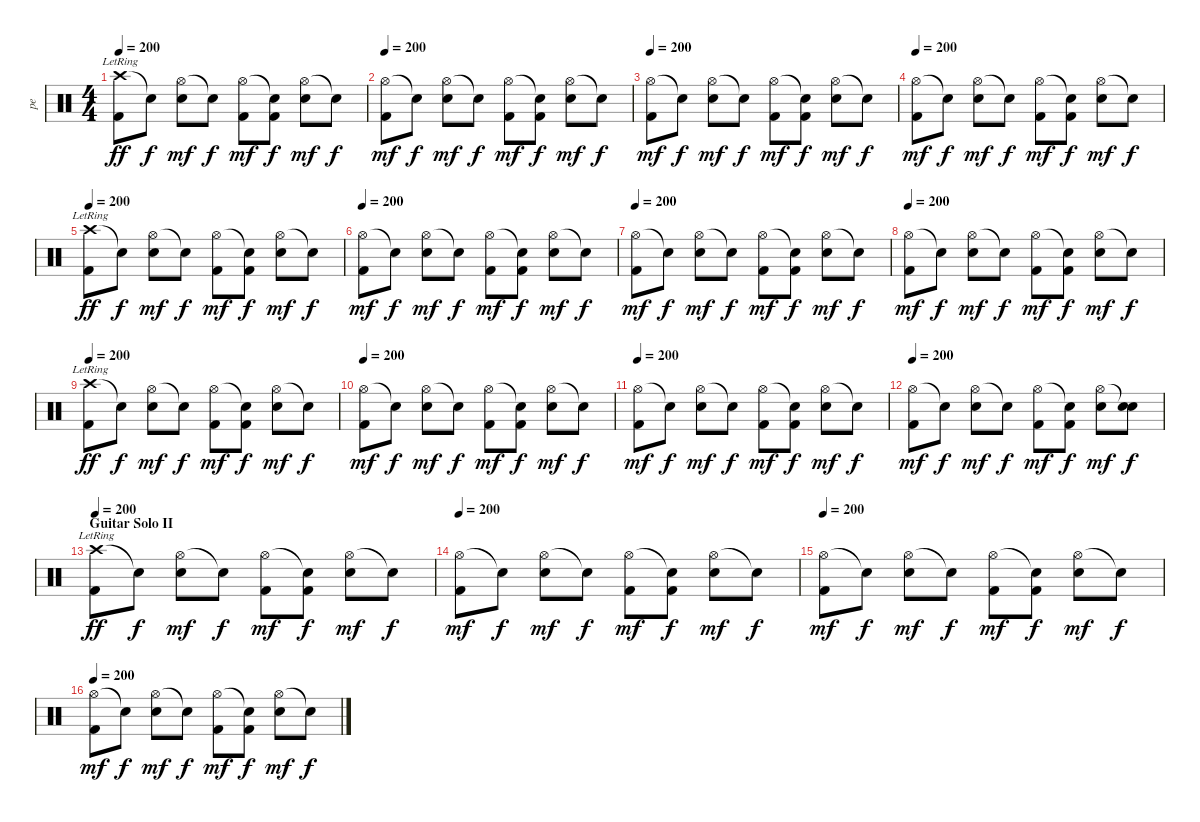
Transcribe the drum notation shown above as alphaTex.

\track ("pe" "pe") {instrument percussion}
\staff {score}
\articulation defaults
\ts (4 4)
\tempo 200
\clef neutral
\ks c
("Crash high (hit)"{lr} "Kick (hit) 2").8{dy ff} "Snare (hit)"{t}.8{dy f} ("Hi-Hat (open)" "Snare (hit) 2").8{dy mf} "Snare (hit)"{t}.8{dy f} ("Hi-Hat (open)" "Kick (hit) 2").8{dy mf} ("Snare (hit)"{t} "Kick (hit) 2").8{dy f} ("Hi-Hat (open)" "Snare (hit) 2").8{dy mf} "Snare (hit)"{t}.8{dy f} |
\tempo 200
("Hi-Hat (open)" "Kick (hit) 2").8{dy mf} "Snare (hit)"{t}.8{dy f} ("Hi-Hat (open)" "Snare (hit) 2").8{dy mf} "Snare (hit)"{t}.8{dy f} ("Hi-Hat (open)" "Kick (hit) 2").8{dy mf} ("Snare (hit)"{t} "Kick (hit) 2").8{dy f} ("Hi-Hat (open)" "Snare (hit) 2").8{dy mf} "Snare (hit)"{t}.8{dy f} |
\tempo 200
("Hi-Hat (open)" "Kick (hit) 2").8{dy mf} "Snare (hit)"{t}.8{dy f} ("Hi-Hat (open)" "Snare (hit) 2").8{dy mf} "Snare (hit)"{t}.8{dy f} ("Hi-Hat (open)" "Kick (hit) 2").8{dy mf} ("Snare (hit)"{t} "Kick (hit) 2").8{dy f} ("Hi-Hat (open)" "Snare (hit) 2").8{dy mf} "Snare (hit)"{t}.8{dy f} |
\tempo 200
("Hi-Hat (open)" "Kick (hit) 2").8{dy mf} "Snare (hit)"{t}.8{dy f} ("Hi-Hat (open)" "Snare (hit) 2").8{dy mf} "Snare (hit)"{t}.8{dy f} ("Hi-Hat (open)" "Kick (hit) 2").8{dy mf} ("Snare (hit)"{t} "Kick (hit) 2").8{dy f} ("Hi-Hat (open)" "Snare (hit) 2").8{dy mf} "Snare (hit)"{t}.8{dy f} |
\tempo 200
("Crash high (hit)"{lr} "Kick (hit) 2").8{dy ff} "Snare (hit)"{t}.8{dy f} ("Hi-Hat (open)" "Snare (hit) 2").8{dy mf} "Snare (hit)"{t}.8{dy f} ("Hi-Hat (open)" "Kick (hit) 2").8{dy mf} ("Snare (hit)"{t} "Kick (hit) 2").8{dy f} ("Hi-Hat (open)" "Snare (hit) 2").8{dy mf} "Snare (hit)"{t}.8{dy f} |
\tempo 200
("Hi-Hat (open)" "Kick (hit) 2").8{dy mf} "Snare (hit)"{t}.8{dy f} ("Hi-Hat (open)" "Snare (hit) 2").8{dy mf} "Snare (hit)"{t}.8{dy f} ("Hi-Hat (open)" "Kick (hit) 2").8{dy mf} ("Snare (hit)"{t} "Kick (hit) 2").8{dy f} ("Hi-Hat (open)" "Snare (hit) 2").8{dy mf} "Snare (hit)"{t}.8{dy f} |
\tempo 200
("Hi-Hat (open)" "Kick (hit) 2").8{dy mf} "Snare (hit)"{t}.8{dy f} ("Hi-Hat (open)" "Snare (hit) 2").8{dy mf} "Snare (hit)"{t}.8{dy f} ("Hi-Hat (open)" "Kick (hit) 2").8{dy mf} ("Snare (hit)"{t} "Kick (hit) 2").8{dy f} ("Hi-Hat (open)" "Snare (hit) 2").8{dy mf} "Snare (hit)"{t}.8{dy f} |
\tempo 200
("Hi-Hat (open)" "Kick (hit) 2").8{dy mf} "Snare (hit)"{t}.8{dy f} ("Hi-Hat (open)" "Snare (hit) 2").8{dy mf} "Snare (hit)"{t}.8{dy f} ("Hi-Hat (open)" "Kick (hit) 2").8{dy mf} ("Snare (hit)"{t} "Kick (hit) 2").8{dy f} ("Hi-Hat (open)" "Snare (hit) 2").8{dy mf} "Snare (hit)"{t}.8{dy f} |
\tempo 200
("Crash high (hit)"{lr} "Kick (hit) 2").8{dy ff} "Snare (hit)"{t}.8{dy f} ("Hi-Hat (open)" "Snare (hit) 2").8{dy mf} "Snare (hit)"{t}.8{dy f} ("Hi-Hat (open)" "Kick (hit) 2").8{dy mf} ("Snare (hit)"{t} "Kick (hit) 2").8{dy f} ("Hi-Hat (open)" "Snare (hit) 2").8{dy mf} "Snare (hit)"{t}.8{dy f} |
\tempo 200
("Hi-Hat (open)" "Kick (hit) 2").8{dy mf} "Snare (hit)"{t}.8{dy f} ("Hi-Hat (open)" "Snare (hit) 2").8{dy mf} "Snare (hit)"{t}.8{dy f} ("Hi-Hat (open)" "Kick (hit) 2").8{dy mf} ("Snare (hit)"{t} "Kick (hit) 2").8{dy f} ("Hi-Hat (open)" "Snare (hit) 2").8{dy mf} "Snare (hit)"{t}.8{dy f} |
\tempo 200
("Hi-Hat (open)" "Kick (hit) 2").8{dy mf} "Snare (hit)"{t}.8{dy f} ("Hi-Hat (open)" "Snare (hit) 2").8{dy mf} "Snare (hit)"{t}.8{dy f} ("Hi-Hat (open)" "Kick (hit) 2").8{dy mf} ("Snare (hit)"{t} "Kick (hit) 2").8{dy f} ("Hi-Hat (open)" "Snare (hit) 2").8{dy mf} "Snare (hit)"{t}.8{dy f} |
\tempo 200
("Hi-Hat (open)" "Kick (hit) 2").8{dy mf} "Snare (hit)"{t}.8{dy f} ("Hi-Hat (open)" "Snare (hit) 2").8{dy mf} "Snare (hit)"{t}.8{dy f} ("Hi-Hat (open)" "Kick (hit) 2").8{dy mf} ("Snare (hit)"{t} "Kick (hit) 2").8{dy f} ("Hi-Hat (open)" "Snare (hit) 2").8{dy mf} ("Snare (hit)"{t} "Snare (hit) 2").8{dy f} |
\section ("" "Guitar Solo II")
\tempo 200
("Crash high (hit)"{lr} "Kick (hit) 2").8{dy ff} "Snare (hit)"{t}.8{dy f} ("Hi-Hat (open)" "Snare (hit) 2").8{dy mf} "Snare (hit)"{t}.8{dy f} ("Hi-Hat (open)" "Kick (hit) 2").8{dy mf} ("Snare (hit)"{t} "Kick (hit) 2").8{dy f} ("Hi-Hat (open)" "Snare (hit) 2").8{dy mf} "Snare (hit)"{t}.8{dy f} |
\tempo 200
("Hi-Hat (open)" "Kick (hit) 2").8{dy mf} "Snare (hit)"{t}.8{dy f} ("Hi-Hat (open)" "Snare (hit) 2").8{dy mf} "Snare (hit)"{t}.8{dy f} ("Hi-Hat (open)" "Kick (hit) 2").8{dy mf} ("Snare (hit)"{t} "Kick (hit) 2").8{dy f} ("Hi-Hat (open)" "Snare (hit) 2").8{dy mf} "Snare (hit)"{t}.8{dy f} |
\tempo 200
("Hi-Hat (open)" "Kick (hit) 2").8{dy mf} "Snare (hit)"{t}.8{dy f} ("Hi-Hat (open)" "Snare (hit) 2").8{dy mf} "Snare (hit)"{t}.8{dy f} ("Hi-Hat (open)" "Kick (hit) 2").8{dy mf} ("Snare (hit)"{t} "Kick (hit) 2").8{dy f} ("Hi-Hat (open)" "Snare (hit) 2").8{dy mf} "Snare (hit)"{t}.8{dy f} |
\tempo 200
("Hi-Hat (open)" "Kick (hit) 2").8{dy mf} "Snare (hit)"{t}.8{dy f} ("Hi-Hat (open)" "Snare (hit) 2").8{dy mf} "Snare (hit)"{t}.8{dy f} ("Hi-Hat (open)" "Kick (hit) 2").8{dy mf} ("Snare (hit)"{t} "Kick (hit) 2").8{dy f} ("Hi-Hat (open)" "Snare (hit) 2").8{dy mf} "Snare (hit)"{t}.8{dy f}
